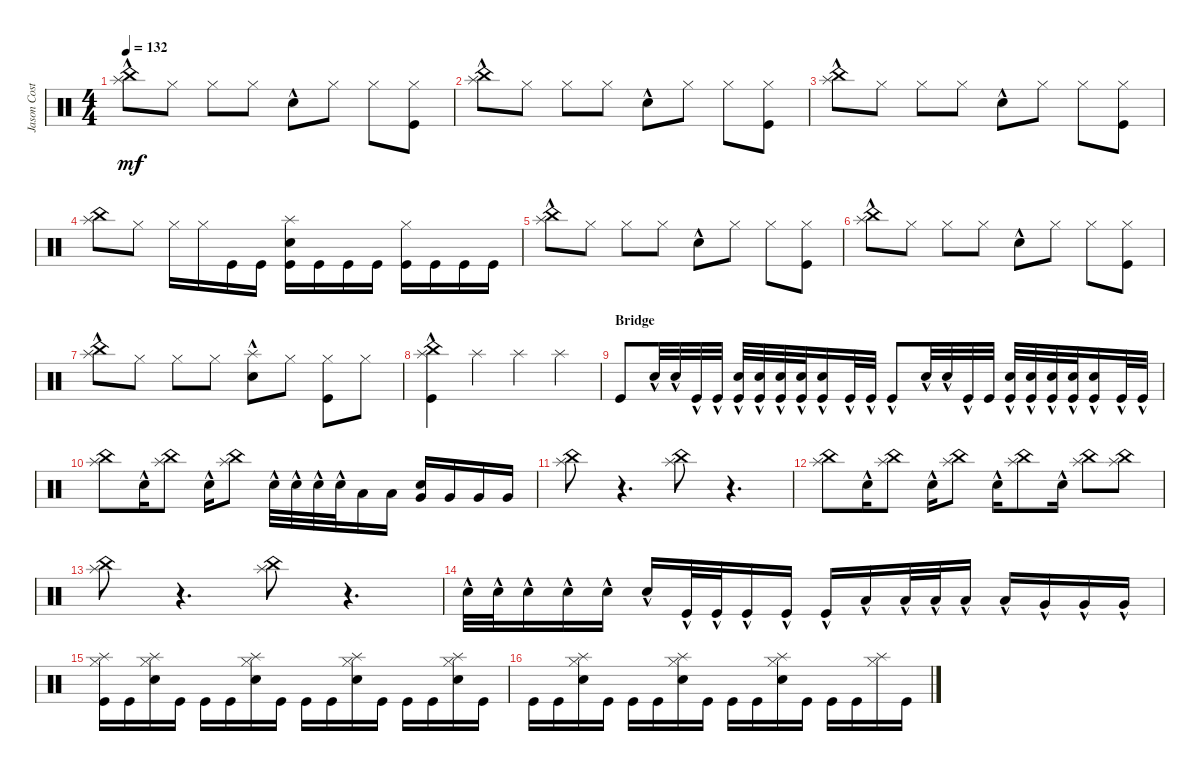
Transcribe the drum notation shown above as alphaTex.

\track ("Jason Costa" "Jason Cost") {instrument percussion}
\staff {score}
\articulation defaults
\ts (4 4)
\tempo 132
\clef neutral
\ks c
("China (hit)"{hac} "Splash (hit)").8{dy mf} "Hi-Hat (closed)".8 "Hi-Hat (closed)".8 "Hi-Hat (closed)".8 "Snare (hit) 2"{hac}.8 "Hi-Hat (closed)".8 "Hi-Hat (closed)".8 ("Hi-Hat (closed)" "Kick (hit)").8 |
("Splash (hit)" "China (hit)"{hac}).8 "Hi-Hat (closed)".8 "Hi-Hat (closed)".8 "Hi-Hat (closed)".8 "Snare (hit) 2"{hac}.8 "Hi-Hat (closed)".8 "Hi-Hat (closed)".8 ("Kick (hit)" "Hi-Hat (closed)").8 |
("Splash (hit)" "China (hit)"{hac}).8 "Hi-Hat (closed)".8 "Hi-Hat (closed)".8 "Hi-Hat (closed)".8 "Snare (hit) 2"{hac}.8 "Hi-Hat (closed)".8 "Hi-Hat (closed)".8 ("Kick (hit)" "Hi-Hat (closed)").8 |
("Splash (hit)" "China (hit)").8 "Hi-Hat (closed)".8 "Hi-Hat (closed)".16 "Hi-Hat (closed)".16 "Kick (hit)".16 "Kick (hit)".16 ("Snare (hit) 2" "Splash (hit)" "Kick (hit)").16 "Kick (hit)".16 "Kick (hit)".16 "Kick (hit)".16 ("Hi-Hat (closed)" "Kick (hit)").16 "Kick (hit)".16 "Kick (hit)".16 "Kick (hit)".16 |
("China (hit)"{hac} "Splash (hit)").8 "Hi-Hat (closed)".8 "Hi-Hat (closed)".8 "Hi-Hat (closed)".8 "Snare (hit) 2"{hac}.8 "Hi-Hat (closed)".8 "Hi-Hat (closed)".8 ("Hi-Hat (closed)" "Kick (hit)").8 |
("Splash (hit)" "China (hit)"{hac}).8 "Hi-Hat (closed)".8 "Hi-Hat (closed)".8 "Hi-Hat (closed)".8 "Snare (hit) 2"{hac}.8 "Hi-Hat (closed)".8 "Hi-Hat (closed)".8 ("Kick (hit)" "Hi-Hat (closed)").8 |
("Splash (hit)" "China (hit)"{hac}).8 "Hi-Hat (closed)".8 "Hi-Hat (closed)".8 "Hi-Hat (closed)".8 ("Snare (hit) 2" "Splash (hit)"{hac}).8 "Hi-Hat (closed)".8 ("Hi-Hat (closed)" "Kick (hit)").8 "Hi-Hat (closed)".8 |
("China (hit)" "Splash (hit)"{hac} "Kick (hit)").4 "Splash (hit)".4 "Splash (hit)".4 "Splash (hit)".4 |
\section ("" "Bridge")
"Kick (hit)".8 "Snare (hit) 2"{hac}.32 "Snare (hit) 2"{hac}.32 "Kick (hit)"{hac}.32 "Kick (hit)"{hac}.32 ("Snare (hit) 2"{hac} "Kick (hit)").32 ("Snare (hit) 2"{hac} "Kick (hit)").32 ("Snare (hit) 2"{hac} "Kick (hit)").32 ("Snare (hit) 2"{hac} "Kick (hit)").32 ("Snare (hit) 2"{hac} "Kick (hit)").16 "Kick (hit)"{hac}.32 "Kick (hit)"{hac}.32 "Kick (hit)"{hac}.8 "Snare (hit) 2"{hac}.32 "Snare (hit) 2"{hac}.32 "Kick (hit)"{hac}.32 "Kick (hit)".32 ("Kick (hit)"{hac} "Snare (hit) 2"{hac}).32 ("Kick (hit)"{hac} "Snare (hit) 2"{hac}).32 ("Kick (hit)"{hac} "Snare (hit) 2"{hac}).32 ("Kick (hit)"{hac} "Snare (hit) 2"{hac}).32 ("Kick (hit)"{hac} "Snare (hit) 2"{hac}).16 "Kick (hit)"{hac}.32 "Kick (hit)"{hac}.32 |
("Splash (hit)" "China (hit)").8 "Snare (hit) 2"{hac}.16 ("Splash (hit)" "China (hit)").8 "Snare (hit) 2"{hac}.16 ("Splash (hit)" "China (hit)").8 "Snare (hit) 2"{hac}.32 "Snare (hit) 2"{hac}.32 "Snare (hit) 2"{hac}.32 "Snare (hit) 2"{hac}.32 "Low Tom (hit)".16 "Low Tom (hit)".16 ("Very Low Tom (hit)" "Snare (hit) 2").16 "Very Low Tom (hit)".16 "Very Low Tom (hit)".16 "Very Low Tom (hit)".16 |
("Splash (hit)" "China (hit)").8 r.4{d} ("Splash (hit)" "China (hit)").8 r.4{d} |
("Splash (hit)" "China (hit)").8 "Snare (hit) 2"{hac}.16 ("Splash (hit)" "China (hit)").8 "Snare (hit) 2"{hac}.16 ("Splash (hit)" "China (hit)").8 "Snare (hit) 2"{hac}.16 ("Splash (hit)" "China (hit)").8 "Snare (hit) 2"{hac}.16 ("Splash (hit)" "China (hit)").8 ("Splash (hit)" "China (hit)").8 |
("Splash (hit)" "China (hit)").8 r.4{d} ("Splash (hit)" "China (hit)").8 r.4{d} |
"Snare (hit) 2"{hac}.32 "Snare (hit) 2"{hac}.32 "Snare (hit) 2"{hac}.16 "Snare (hit) 2"{hac}.16 "Snare (hit) 2"{hac}.16 "Snare (hit) 2"{hac}.16 "Kick (hit)"{hac}.32 "Kick (hit)"{hac}.32 "Kick (hit)"{hac}.16 "Kick (hit)"{hac}.16 "Kick (hit)"{hac}.16 "Low Tom (hit)"{hac}.16 "Low Tom (hit)"{hac}.32 "Low Tom (hit)"{hac}.32 "Low Tom (hit)"{hac}.16 "Low Tom (hit)"{hac}.16 "Very Low Tom (hit)"{hac}.16 "Very Low Tom (hit)"{hac}.16 "Very Low Tom (hit)"{hac}.16 |
("Hi-Hat (closed)" "Splash (hit)" "Kick (hit)").16 "Kick (hit)".16 ("Snare (hit) 2" "Hi-Hat (closed)" "Splash (hit)").16 "Kick (hit)".16 "Kick (hit)".16 "Kick (hit)".16 ("Snare (hit) 2" "Splash (hit)" "Hi-Hat (closed)").16 "Kick (hit)".16 "Kick (hit)".16 "Kick (hit)".16 ("Snare (hit) 2" "Hi-Hat (closed)" "Splash (hit)").16 "Kick (hit)".16 "Kick (hit)".16 "Kick (hit)".16 ("Snare (hit) 2" "Splash (hit)" "Hi-Hat (closed)").16 "Kick (hit)".16 |
"Kick (hit)".16 "Kick (hit)".16 ("Snare (hit) 2" "Hi-Hat (closed)" "Splash (hit)").16 "Kick (hit)".16 "Kick (hit)".16 "Kick (hit)".16 ("Snare (hit) 2" "Hi-Hat (closed)" "Splash (hit)").16 "Kick (hit)".16 "Kick (hit)".16 "Kick (hit)".16 ("Snare (hit) 2" "Hi-Hat (closed)" "Splash (hit)").16 "Kick (hit)".16 "Kick (hit)".16 "Kick (hit)".16 ("Splash (hit)" "Hi-Hat (closed)").16 "Kick (hit)".16
